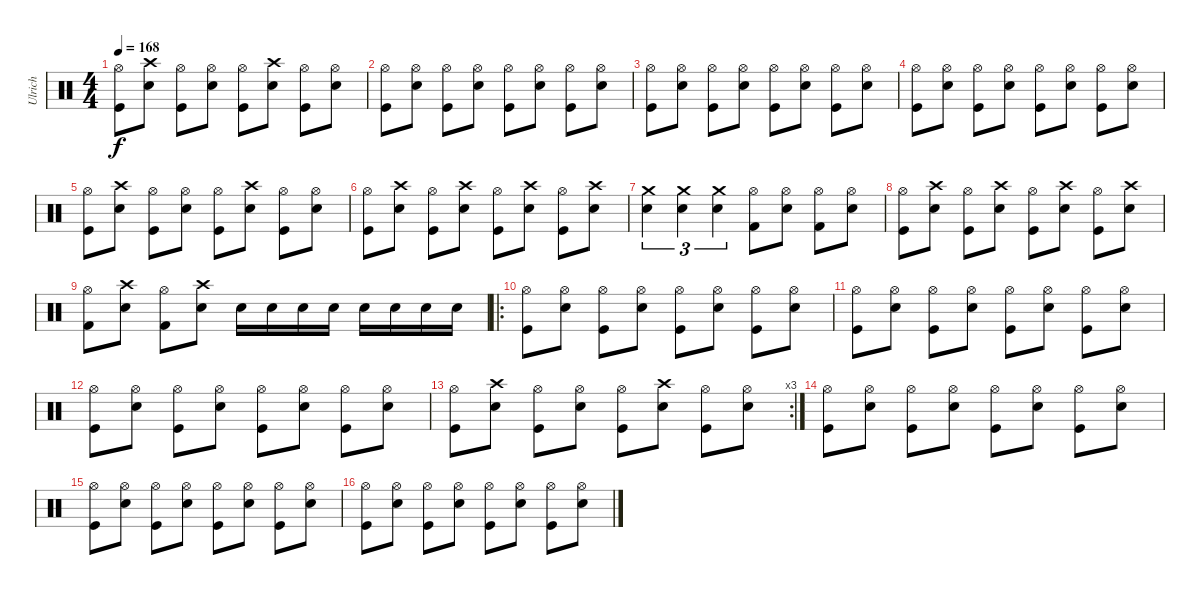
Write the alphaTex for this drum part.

\track ("Ulrich" "Ulrich") {instrument percussion}
\staff {score}
\articulation defaults
\ts (4 4)
\tempo 168
\clef neutral
\ks c
("Hi-Hat (open)" "Kick (hit)").8{dy f} ("Crash high (hit)" "Snare (hit) 2").8 ("Hi-Hat (open)" "Kick (hit)").8 ("Hi-Hat (open)" "Snare (hit) 2").8 ("Hi-Hat (open)" "Kick (hit)").8 ("Crash high (hit)" "Snare (hit) 2").8 ("Hi-Hat (open)" "Kick (hit)").8 ("Hi-Hat (open)" "Snare (hit) 2").8 |
("Hi-Hat (open)" "Kick (hit)").8 ("Hi-Hat (open)" "Snare (hit) 2").8 ("Hi-Hat (open)" "Kick (hit)").8 ("Hi-Hat (open)" "Snare (hit) 2").8 ("Hi-Hat (open)" "Kick (hit)").8 ("Hi-Hat (open)" "Snare (hit) 2").8 ("Hi-Hat (open)" "Kick (hit)").8 ("Hi-Hat (open)" "Snare (hit) 2").8 |
("Hi-Hat (open)" "Kick (hit)").8 ("Hi-Hat (open)" "Snare (hit) 2").8 ("Hi-Hat (open)" "Kick (hit)").8 ("Hi-Hat (open)" "Snare (hit) 2").8 ("Hi-Hat (open)" "Kick (hit)").8 ("Hi-Hat (open)" "Snare (hit) 2").8 ("Hi-Hat (open)" "Kick (hit)").8 ("Hi-Hat (open)" "Snare (hit) 2").8 |
("Hi-Hat (open)" "Kick (hit)").8 ("Hi-Hat (open)" "Snare (hit) 2").8 ("Hi-Hat (open)" "Kick (hit)").8 ("Hi-Hat (open)" "Snare (hit) 2").8 ("Hi-Hat (open)" "Kick (hit)").8 ("Hi-Hat (open)" "Snare (hit) 2").8 ("Hi-Hat (open)" "Kick (hit)").8 ("Hi-Hat (open)" "Snare (hit) 2").8 |
("Hi-Hat (open)" "Kick (hit)").8 ("Crash high (hit)" "Snare (hit) 2").8 ("Hi-Hat (open)" "Kick (hit)").8 ("Hi-Hat (open)" "Snare (hit) 2").8 ("Hi-Hat (open)" "Kick (hit)").8 ("Crash high (hit)" "Snare (hit) 2").8 ("Hi-Hat (open)" "Kick (hit)").8 ("Hi-Hat (open)" "Snare (hit) 2").8 |
("Hi-Hat (open)" "Kick (hit)").8 ("Crash high (hit)" "Snare (hit) 2").8 ("Hi-Hat (open)" "Kick (hit)").8 ("Crash high (hit)" "Snare (hit) 2").8 ("Hi-Hat (open)" "Kick (hit)").8 ("Crash high (hit)" "Snare (hit) 2").8 ("Hi-Hat (open)" "Kick (hit)").8 ("Crash high (hit)" "Snare (hit) 2").8 |
("Crash medium (hit)" "Snare (hit) 2").4{tu (3 2)} ("Crash medium (hit)" "Snare (hit) 2").4{tu (3 2)} ("Crash medium (hit)" "Snare (hit) 2").4{tu (3 2)} ("Hi-Hat (open)" "Kick (hit) 2").8 ("Hi-Hat (open)" "Snare (hit) 2").8 ("Hi-Hat (open)" "Kick (hit) 2").8 ("Hi-Hat (open)" "Snare (hit) 2").8 |
("Hi-Hat (open)" "Kick (hit)").8 ("Crash high (hit)" "Snare (hit) 2").8 ("Hi-Hat (open)" "Kick (hit)").8 ("Crash high (hit)" "Snare (hit) 2").8 ("Hi-Hat (open)" "Kick (hit)").8 ("Crash high (hit)" "Snare (hit) 2").8 ("Hi-Hat (open)" "Kick (hit)").8 ("Crash high (hit)" "Snare (hit) 2").8 |
("Hi-Hat (open)" "Kick (hit) 2").8 ("Crash high (hit)" "Snare (hit) 2").8 ("Hi-Hat (open)" "Kick (hit) 2").8 ("Crash high (hit)" "Snare (hit) 2").8 "Snare (hit) 2".16 "Snare (hit) 2".16 "Snare (hit) 2".16 "Snare (hit) 2".16 "Snare (hit) 2".16 "Snare (hit) 2".16 "Snare (hit) 2".16 "Snare (hit) 2".16 |
\ro
("Hi-Hat (open)" "Kick (hit)").8 ("Hi-Hat (open)" "Snare (hit) 2").8 ("Hi-Hat (open)" "Kick (hit)").8 ("Hi-Hat (open)" "Snare (hit) 2").8 ("Hi-Hat (open)" "Kick (hit)").8 ("Hi-Hat (open)" "Snare (hit) 2").8 ("Hi-Hat (open)" "Kick (hit)").8 ("Hi-Hat (open)" "Snare (hit) 2").8 |
("Hi-Hat (open)" "Kick (hit)").8 ("Hi-Hat (open)" "Snare (hit) 2").8 ("Hi-Hat (open)" "Kick (hit)").8 ("Hi-Hat (open)" "Snare (hit) 2").8 ("Hi-Hat (open)" "Kick (hit)").8 ("Hi-Hat (open)" "Snare (hit) 2").8 ("Hi-Hat (open)" "Kick (hit)").8 ("Hi-Hat (open)" "Snare (hit) 2").8 |
("Hi-Hat (open)" "Kick (hit)").8 ("Hi-Hat (open)" "Snare (hit) 2").8 ("Hi-Hat (open)" "Kick (hit)").8 ("Hi-Hat (open)" "Snare (hit) 2").8 ("Hi-Hat (open)" "Kick (hit)").8 ("Hi-Hat (open)" "Snare (hit) 2").8 ("Hi-Hat (open)" "Kick (hit)").8 ("Hi-Hat (open)" "Snare (hit) 2").8 |
\rc 3
("Hi-Hat (open)" "Kick (hit)").8 ("Crash high (hit)" "Snare (hit) 2").8 ("Hi-Hat (open)" "Kick (hit)").8 ("Hi-Hat (open)" "Snare (hit) 2").8 ("Hi-Hat (open)" "Kick (hit)").8 ("Crash high (hit)" "Snare (hit) 2").8 ("Hi-Hat (open)" "Kick (hit)").8 ("Hi-Hat (open)" "Snare (hit) 2").8 |
("Hi-Hat (open)" "Kick (hit)").8 ("Hi-Hat (open)" "Snare (hit) 2").8 ("Hi-Hat (open)" "Kick (hit)").8 ("Hi-Hat (open)" "Snare (hit) 2").8 ("Hi-Hat (open)" "Kick (hit)").8 ("Hi-Hat (open)" "Snare (hit) 2").8 ("Hi-Hat (open)" "Kick (hit)").8 ("Hi-Hat (open)" "Snare (hit) 2").8 |
("Hi-Hat (open)" "Kick (hit)").8 ("Hi-Hat (open)" "Snare (hit) 2").8 ("Hi-Hat (open)" "Kick (hit)").8 ("Hi-Hat (open)" "Snare (hit) 2").8 ("Hi-Hat (open)" "Kick (hit)").8 ("Hi-Hat (open)" "Snare (hit) 2").8 ("Hi-Hat (open)" "Kick (hit)").8 ("Hi-Hat (open)" "Snare (hit) 2").8 |
("Hi-Hat (open)" "Kick (hit)").8 ("Hi-Hat (open)" "Snare (hit) 2").8 ("Hi-Hat (open)" "Kick (hit)").8 ("Hi-Hat (open)" "Snare (hit) 2").8 ("Hi-Hat (open)" "Kick (hit)").8 ("Hi-Hat (open)" "Snare (hit) 2").8 ("Hi-Hat (open)" "Kick (hit)").8 ("Hi-Hat (open)" "Snare (hit) 2").8
